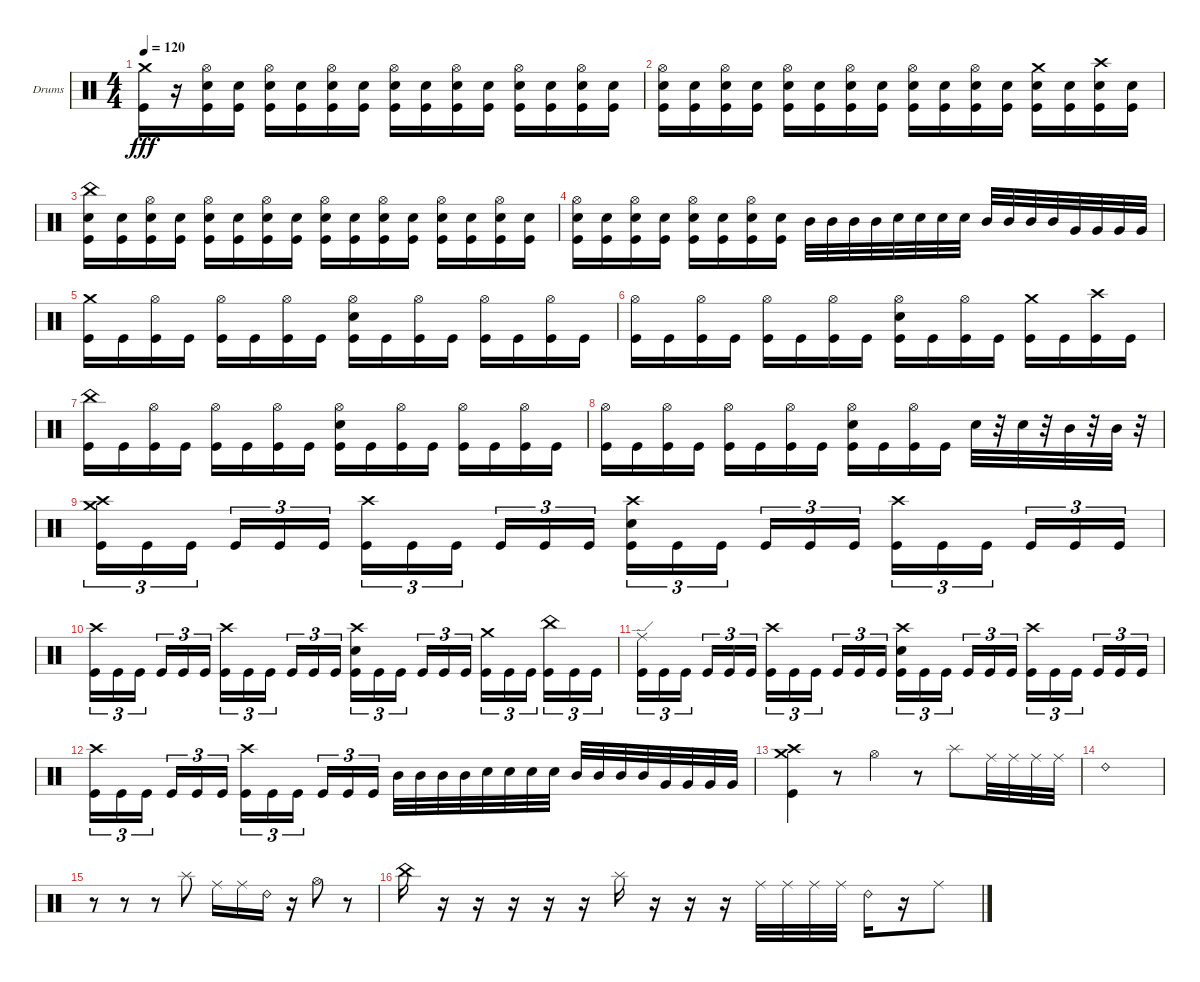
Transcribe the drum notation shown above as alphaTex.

\bracketExtendMode groupsimilarinstruments
\firstSystemTrackNameOrientation horizontal
\otherSystemsTrackNameOrientation horizontal
\track ("Drumkit" "Drums") {instrument percussion}
\staff {score}
\articulation defaults
\ts (4 4)
\tempo 120
\clef neutral
\ks c
("Kick (hit)" "Crash medium (hit)").16{dy fff} r.16 ("Snare (hit) 2" "Kick (hit)" "Hi-Hat (open)").16 ("Snare (hit) 2" "Kick (hit)").16 ("Snare (hit) 2" "Kick (hit)" "Hi-Hat (open)").16 ("Snare (hit) 2" "Kick (hit)").16 ("Snare (hit) 2" "Kick (hit)" "Hi-Hat (open)").16 ("Snare (hit) 2" "Kick (hit)").16 ("Snare (hit) 2" "Kick (hit)" "Hi-Hat (open)").16 ("Snare (hit) 2" "Kick (hit)").16 ("Snare (hit) 2" "Kick (hit)" "Hi-Hat (open)").16 ("Snare (hit) 2" "Kick (hit)").16 ("Snare (hit) 2" "Kick (hit)" "Hi-Hat (open)").16 ("Snare (hit) 2" "Kick (hit)").16 ("Snare (hit) 2" "Kick (hit)" "Hi-Hat (open)").16 ("Snare (hit) 2" "Kick (hit)").16 |
("Snare (hit) 2" "Kick (hit)" "Hi-Hat (open)").16 ("Snare (hit) 2" "Kick (hit)").16 ("Snare (hit) 2" "Kick (hit)" "Hi-Hat (open)").16 ("Snare (hit) 2" "Kick (hit)").16 ("Snare (hit) 2" "Kick (hit)" "Hi-Hat (open)").16 ("Snare (hit) 2" "Kick (hit)").16 ("Snare (hit) 2" "Kick (hit)" "Hi-Hat (open)").16 ("Snare (hit) 2" "Kick (hit)").16 ("Snare (hit) 2" "Kick (hit)" "Hi-Hat (open)").16 ("Snare (hit) 2" "Kick (hit)").16 ("Snare (hit) 2" "Kick (hit)" "Hi-Hat (open)").16 ("Snare (hit) 2" "Kick (hit)").16 ("Snare (hit) 2" "Kick (hit)" "Crash medium (hit)").16 ("Snare (hit) 2" "Kick (hit)").16 ("Snare (hit) 2" "Kick (hit)" "Crash high (hit)").16 ("Snare (hit) 2" "Kick (hit)").16 |
("Snare (hit) 2" "Kick (hit)" "China (hit)").16 ("Snare (hit) 2" "Kick (hit)").16 ("Snare (hit) 2" "Kick (hit)" "Hi-Hat (open)").16 ("Snare (hit) 2" "Kick (hit)").16 ("Snare (hit) 2" "Kick (hit)" "Hi-Hat (open)").16 ("Snare (hit) 2" "Kick (hit)").16 ("Snare (hit) 2" "Kick (hit)" "Hi-Hat (open)").16 ("Snare (hit) 2" "Kick (hit)").16 ("Snare (hit) 2" "Kick (hit)" "Hi-Hat (open)").16 ("Snare (hit) 2" "Kick (hit)").16 ("Snare (hit) 2" "Kick (hit)" "Hi-Hat (open)").16 ("Snare (hit) 2" "Kick (hit)").16 ("Snare (hit) 2" "Kick (hit)" "Hi-Hat (open)").16 ("Snare (hit) 2" "Kick (hit)").16 ("Snare (hit) 2" "Kick (hit)" "Hi-Hat (open)").16 ("Snare (hit) 2" "Kick (hit)").16 |
("Snare (hit) 2" "Kick (hit)" "Hi-Hat (open)").16 ("Snare (hit) 2" "Kick (hit)").16 ("Snare (hit) 2" "Kick (hit)" "Hi-Hat (open)").16 ("Snare (hit) 2" "Kick (hit)").16 ("Snare (hit) 2" "Kick (hit)" "Hi-Hat (open)").16 ("Snare (hit) 2" "Kick (hit)").16 ("Snare (hit) 2" "Kick (hit)" "Hi-Hat (open)").16 ("Snare (hit) 2" "Kick (hit)").16 "Mid Tom (hit)".32 "Mid Tom (hit)".32 "Mid Tom (hit)".32 "Mid Tom (hit)".32 "Snare (hit) 2".32 "Snare (hit) 2".32 "Snare (hit) 2".32 "Snare (hit) 2".32 "Mid Tom (hit)".32 "Mid Tom (hit)".32 "Mid Tom (hit)".32 "Mid Tom (hit)".32 "Very Low Tom (hit)".32 "Very Low Tom (hit)".32 "Very Low Tom (hit)".32 "Very Low Tom (hit)".32 |
("Kick (hit)" "Crash medium (hit)").16 "Kick (hit)".16 ("Kick (hit)" "Hi-Hat (open)").16 "Kick (hit)".16 ("Kick (hit)" "Hi-Hat (open)").16 "Kick (hit)".16 ("Kick (hit)" "Hi-Hat (open)").16 "Kick (hit)".16 ("Kick (hit)" "Hi-Hat (open)" "Snare (hit) 2").16 "Kick (hit)".16 ("Kick (hit)" "Hi-Hat (open)").16 "Kick (hit)".16 ("Kick (hit)" "Hi-Hat (open)").16 "Kick (hit)".16 ("Kick (hit)" "Hi-Hat (open)").16 "Kick (hit)".16 |
("Kick (hit)" "Hi-Hat (open)").16 "Kick (hit)".16 ("Kick (hit)" "Hi-Hat (open)").16 "Kick (hit)".16 ("Kick (hit)" "Hi-Hat (open)").16 "Kick (hit)".16 ("Kick (hit)" "Hi-Hat (open)").16 "Kick (hit)".16 ("Snare (hit) 2" "Kick (hit)" "Hi-Hat (open)").16 "Kick (hit)".16 ("Kick (hit)" "Hi-Hat (open)").16 "Kick (hit)".16 ("Kick (hit)" "Crash medium (hit)").16 "Kick (hit)".16 ("Kick (hit)" "Crash high (hit)").16 "Kick (hit)".16 |
("Kick (hit)" "China (hit)").16 "Kick (hit)".16 ("Kick (hit)" "Hi-Hat (open)").16 "Kick (hit)".16 ("Kick (hit)" "Hi-Hat (open)").16 "Kick (hit)".16 ("Kick (hit)" "Hi-Hat (open)").16 "Kick (hit)".16 ("Snare (hit) 2" "Kick (hit)" "Hi-Hat (open)").16 "Kick (hit)".16 ("Kick (hit)" "Hi-Hat (open)").16 "Kick (hit)".16 ("Kick (hit)" "Hi-Hat (open)").16 "Kick (hit)".16 ("Kick (hit)" "Hi-Hat (open)").16 "Kick (hit)".16 |
("Kick (hit)" "Hi-Hat (open)").16 "Kick (hit)".16 ("Kick (hit)" "Hi-Hat (open)").16 "Kick (hit)".16 ("Kick (hit)" "Hi-Hat (open)").16 "Kick (hit)".16 ("Kick (hit)" "Hi-Hat (open)").16 "Kick (hit)".16 ("Kick (hit)" "Hi-Hat (open)" "Snare (hit) 2").16 "Kick (hit)".16 ("Kick (hit)" "Hi-Hat (open)").16 "Kick (hit)".16 "Snare (hit) 2".32 r.32 "Snare (hit) 2".32 r.32 "Mid Tom (hit)".32 r.32 "Mid Tom (hit)".32 r.32 |
("Kick (hit)" "Crash high (hit)" "Crash medium (hit)").16{tu (3 2)} "Kick (hit)".16{tu (3 2)} "Kick (hit)".16{tu (3 2)} "Kick (hit)".16{tu (3 2)} "Kick (hit)".16{tu (3 2)} "Kick (hit)".16{tu (3 2)} ("Kick (hit)" "Crash high (hit)").16{tu (3 2)} "Kick (hit)".16{tu (3 2)} "Kick (hit)".16{tu (3 2)} "Kick (hit)".16{tu (3 2)} "Kick (hit)".16{tu (3 2)} "Kick (hit)".16{tu (3 2)} ("Kick (hit)" "Crash high (hit)" "Snare (hit) 2").16{tu (3 2)} "Kick (hit)".16{tu (3 2)} "Kick (hit)".16{tu (3 2)} "Kick (hit)".16{tu (3 2)} "Kick (hit)".16{tu (3 2)} "Kick (hit)".16{tu (3 2)} ("Kick (hit)" "Crash high (hit)").16{tu (3 2)} "Kick (hit)".16{tu (3 2)} "Kick (hit)".16{tu (3 2)} "Kick (hit)".16{tu (3 2)} "Kick (hit)".16{tu (3 2)} "Kick (hit)".16{tu (3 2)} |
("Kick (hit)" "Crash high (hit)").16{tu (3 2)} "Kick (hit)".16{tu (3 2)} "Kick (hit)".16{tu (3 2)} "Kick (hit)".16{tu (3 2)} "Kick (hit)".16{tu (3 2)} "Kick (hit)".16{tu (3 2)} ("Kick (hit)" "Crash high (hit)").16{tu (3 2)} "Kick (hit)".16{tu (3 2)} "Kick (hit)".16{tu (3 2)} "Kick (hit)".16{tu (3 2)} "Kick (hit)".16{tu (3 2)} "Kick (hit)".16{tu (3 2)} ("Kick (hit)" "Crash high (hit)" "Snare (hit) 2").16{tu (3 2)} "Kick (hit)".16{tu (3 2)} "Kick (hit)".16{tu (3 2)} "Kick (hit)".16{tu (3 2)} "Kick (hit)".16{tu (3 2)} "Kick (hit)".16{tu (3 2)} ("Kick (hit)" "Crash medium (hit)").16{tu (3 2)} "Kick (hit)".16{tu (3 2)} "Kick (hit)".16{tu (3 2)} ("Kick (hit)" "China (hit)").16{tu (3 2)} "Kick (hit)".16{tu (3 2)} "Kick (hit)".16{tu (3 2)} |
("Kick (hit)" "Ride (edge)").16{tu (3 2)} "Kick (hit)".16{tu (3 2)} "Kick (hit)".16{tu (3 2)} "Kick (hit)".16{tu (3 2)} "Kick (hit)".16{tu (3 2)} "Kick (hit)".16{tu (3 2)} ("Kick (hit)" "Crash high (hit)").16{tu (3 2)} "Kick (hit)".16{tu (3 2)} "Kick (hit)".16{tu (3 2)} "Kick (hit)".16{tu (3 2)} "Kick (hit)".16{tu (3 2)} "Kick (hit)".16{tu (3 2)} ("Kick (hit)" "Crash high (hit)" "Snare (hit) 2").16{tu (3 2)} "Kick (hit)".16{tu (3 2)} "Kick (hit)".16{tu (3 2)} "Kick (hit)".16{tu (3 2)} "Kick (hit)".16{tu (3 2)} "Kick (hit)".16{tu (3 2)} ("Kick (hit)" "Crash high (hit)").16{tu (3 2)} "Kick (hit)".16{tu (3 2)} "Kick (hit)".16{tu (3 2)} "Kick (hit)".16{tu (3 2)} "Kick (hit)".16{tu (3 2)} "Kick (hit)".16{tu (3 2)} |
("Kick (hit)" "Crash high (hit)").16{tu (3 2)} "Kick (hit)".16{tu (3 2)} "Kick (hit)".16{tu (3 2)} "Kick (hit)".16{tu (3 2)} "Kick (hit)".16{tu (3 2)} "Kick (hit)".16{tu (3 2)} ("Kick (hit)" "Crash high (hit)").16{tu (3 2)} "Kick (hit)".16{tu (3 2)} "Kick (hit)".16{tu (3 2)} "Kick (hit)".16{tu (3 2)} "Kick (hit)".16{tu (3 2)} "Kick (hit)".16{tu (3 2)} "Mid Tom (hit)".32 "Mid Tom (hit)".32 "Mid Tom (hit)".32 "Mid Tom (hit)".32 "Snare (hit) 2".32 "Snare (hit) 2".32 "Snare (hit) 2".32 "Snare (hit) 2".32 "Mid Tom (hit)".32 "Mid Tom (hit)".32 "Mid Tom (hit)".32 "Mid Tom (hit)".32 "Very Low Tom (hit)".32 "Very Low Tom (hit)".32 "Very Low Tom (hit)".32 "Very Low Tom (hit)".32 |
("Kick (hit)" "Crash high (hit)" "Crash medium (hit)").4 r.8 "Hi-Hat (open)".4 r.8 "Splash (hit)".8 "Ride (middle)".32 "Ride (middle)".32 "Ride (middle)".32 "Ride (middle)".32 |
"Ride (bell) 2".1 |
r.8 r.8 r.8 "Splash (hit)".8 "Ride (middle)".16 "Ride (middle)".16 "Ride (bell) 2".16 r.16 "Hi-Hat (open)".8 r.8 |
"China (hit)".16 r.16 r.16 r.16 r.16 r.16 "Splash (hit)".16 r.16 r.16 r.16 "Ride (middle)".32 "Ride (middle)".32 "Ride (middle)".32 "Ride (middle)".32 "Ride (bell) 2".16 r.16 "Ride (middle)".8
